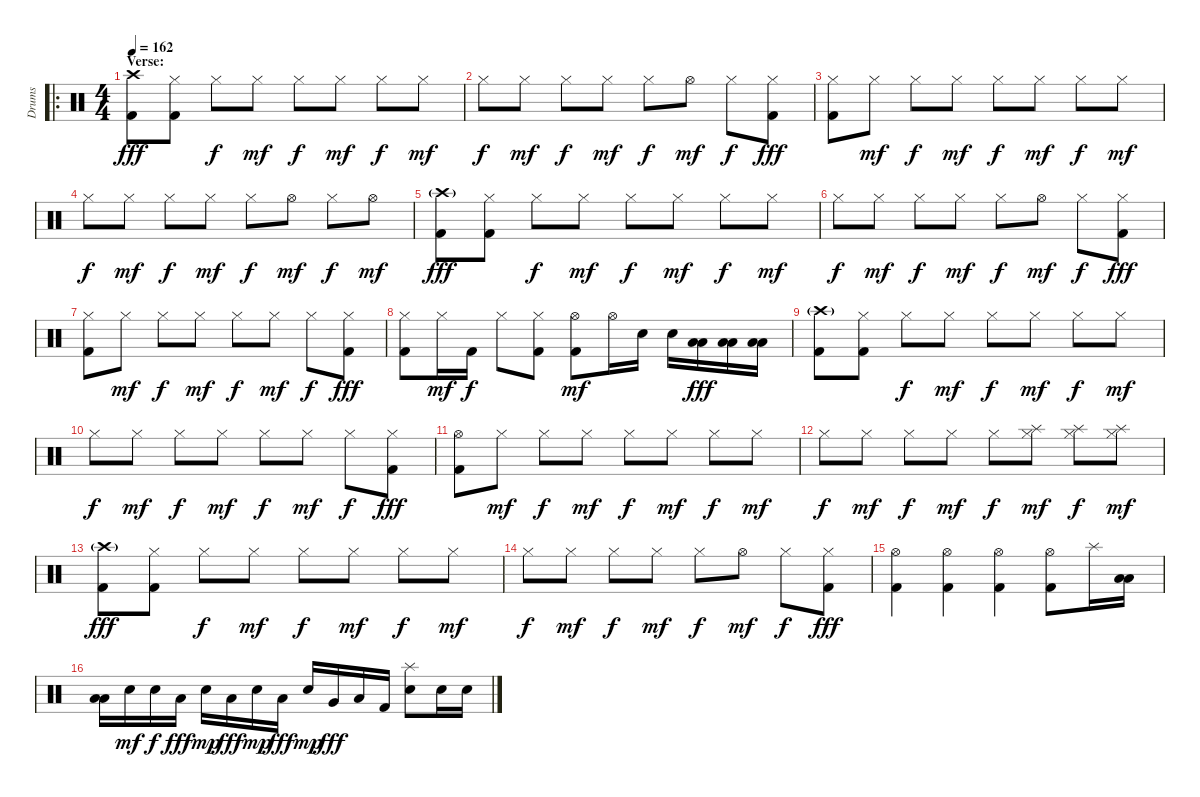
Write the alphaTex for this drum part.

\track ("Drums" "Drums") {instrument percussion}
\staff {score}
\articulation defaults
\ro
\ts (4 4)
\section ("" "Verse:")
\tempo 162
\clef neutral
\ks c
("Crash high (hit)" "Kick (hit) 2").8{dy fff} ("Hi-Hat (closed)" "Kick (hit) 2").8 "Hi-Hat (closed)".8{dy f} "Hi-Hat (closed)".8{dy mf} "Hi-Hat (closed)".8{dy f} "Hi-Hat (closed)".8{dy mf} "Hi-Hat (closed)".8{dy f} "Hi-Hat (closed)".8{dy mf} |
"Hi-Hat (closed)".8{dy f} "Hi-Hat (closed)".8{dy mf} "Hi-Hat (closed)".8{dy f} "Hi-Hat (closed)".8{dy mf} "Hi-Hat (closed)".8{dy f} "Hi-Hat (open)".8{dy mf} "Hi-Hat (closed)".8{dy f} ("Hi-Hat (closed)" "Kick (hit) 2").8{dy fff} |
("Hi-Hat (closed)" "Kick (hit) 2").8 "Hi-Hat (closed)".8{dy mf} "Hi-Hat (closed)".8{dy f} "Hi-Hat (closed)".8{dy mf} "Hi-Hat (closed)".8{dy f} "Hi-Hat (closed)".8{dy mf} "Hi-Hat (closed)".8{dy f} "Hi-Hat (closed)".8{dy mf} |
"Hi-Hat (closed)".8{dy f} "Hi-Hat (closed)".8{dy mf} "Hi-Hat (closed)".8{dy f} "Hi-Hat (closed)".8{dy mf} "Hi-Hat (closed)".8{dy f} "Hi-Hat (open)".8{dy mf} "Hi-Hat (closed)".8{dy f} "Hi-Hat (open)".8{dy mf} |
("Crash high (hit)"{g} "Kick (hit) 2").8{dy fff} ("Hi-Hat (closed)" "Kick (hit) 2").8 "Hi-Hat (closed)".8{dy f} "Hi-Hat (closed)".8{dy mf} "Hi-Hat (closed)".8{dy f} "Hi-Hat (closed)".8{dy mf} "Hi-Hat (closed)".8{dy f} "Hi-Hat (closed)".8{dy mf} |
"Hi-Hat (closed)".8{dy f} "Hi-Hat (closed)".8{dy mf} "Hi-Hat (closed)".8{dy f} "Hi-Hat (closed)".8{dy mf} "Hi-Hat (closed)".8{dy f} "Hi-Hat (open)".8{dy mf} "Hi-Hat (closed)".8{dy f} ("Hi-Hat (closed)" "Kick (hit) 2").8{dy fff} |
("Hi-Hat (closed)" "Kick (hit) 2").8 "Hi-Hat (closed)".8{dy mf} "Hi-Hat (closed)".8{dy f} "Hi-Hat (closed)".8{dy mf} "Hi-Hat (closed)".8{dy f} "Hi-Hat (closed)".8{dy mf} "Hi-Hat (closed)".8{dy f} ("Hi-Hat (closed)" "Kick (hit) 2").8{dy fff} |
("Hi-Hat (closed)" "Kick (hit) 2").8 "Hi-Hat (closed)".16{dy mf} "Kick (hit) 2".16{dy f} "Hi-Hat (closed)".8 ("Hi-Hat (closed)" "Kick (hit) 2").8 ("Hi-Hat (open)" "Kick (hit) 2").8{dy mf} "Hi-Hat (open)".16 "Snare (hit) 2".16 "Snare (hit) 2".16 ("Low Tom (hit)" "Low Tom (hit)").16{dy fff} ("Low Tom (hit)" "Low Tom (hit)").16 ("Low Floor Tom (hit)" "Low Floor Tom (hit)").16 |
("Crash high (hit)"{g} "Kick (hit) 2").8 ("Hi-Hat (closed)" "Kick (hit) 2").8 "Hi-Hat (closed)".8{dy f} "Hi-Hat (closed)".8{dy mf} "Hi-Hat (closed)".8{dy f} "Hi-Hat (closed)".8{dy mf} "Hi-Hat (closed)".8{dy f} "Hi-Hat (closed)".8{dy mf} |
"Hi-Hat (closed)".8{dy f} "Hi-Hat (closed)".8{dy mf} "Hi-Hat (closed)".8{dy f} "Hi-Hat (closed)".8{dy mf} "Hi-Hat (closed)".8{dy f} "Hi-Hat (closed)".8{dy mf} "Hi-Hat (closed)".8{dy f} ("Hi-Hat (closed)" "Kick (hit) 2").8{dy fff} |
("Hi-Hat (open)" "Kick (hit) 2").8 "Hi-Hat (closed)".8{dy mf} "Hi-Hat (closed)".8{dy f} "Hi-Hat (closed)".8{dy mf} "Hi-Hat (closed)".8{dy f} "Hi-Hat (closed)".8{dy mf} "Hi-Hat (closed)".8{dy f} "Hi-Hat (closed)".8{dy mf} |
"Hi-Hat (closed)".8{dy f} "Hi-Hat (closed)".8{dy mf} "Hi-Hat (closed)".8{dy f} "Hi-Hat (closed)".8{dy mf} "Hi-Hat (closed)".8{dy f} ("Hi-Hat (closed)" "Splash (hit)").8{dy mf} ("Hi-Hat (closed)" "Splash (hit)").8{dy f} ("Hi-Hat (closed)" "Splash (hit)").8{dy mf} |
("Crash high (hit)"{g} "Kick (hit) 2").8{dy fff} ("Hi-Hat (closed)" "Kick (hit) 2").8 "Hi-Hat (closed)".8{dy f} "Hi-Hat (closed)".8{dy mf} "Hi-Hat (closed)".8{dy f} "Hi-Hat (closed)".8{dy mf} "Hi-Hat (closed)".8{dy f} "Hi-Hat (closed)".8{dy mf} |
"Hi-Hat (closed)".8{dy f} "Hi-Hat (closed)".8{dy mf} "Hi-Hat (closed)".8{dy f} "Hi-Hat (closed)".8{dy mf} "Hi-Hat (closed)".8{dy f} "Hi-Hat (open)".8{dy mf} "Hi-Hat (closed)".8{dy f} ("Hi-Hat (closed)" "Kick (hit) 2").8{dy fff} |
("Hi-Hat (open)" "Kick (hit) 2").4 ("Hi-Hat (open)" "Kick (hit) 2").4 ("Hi-Hat (open)" "Kick (hit) 2").4 ("Hi-Hat (open)" "Kick (hit) 2").8 "Splash (hit)".16 ("Low Tom (hit)" "Low Floor Tom (hit)").16 |
("Low Floor Tom (hit)" "Low Floor Tom (hit)").16 "Snare (hit) 2".16{dy mf} "Snare (hit) 2".16{dy f} "Low Tom (hit)".16{dy fff} "Snare (hit) 2".16{dy mp} "Low Tom (hit)".16{dy fff} "Snare (hit) 2".16{dy mp} "Low Tom (hit)".16{dy fff} "Snare (hit) 2".16{dy mp} "Very Low Tom (hit)".16{dy fff} "Low Floor Tom (hit)".16 "Kick (hit) 2".16 ("Splash (hit)" "Snare (hit) 2").8 "Snare (hit) 2".16 "Snare (hit) 2".16
